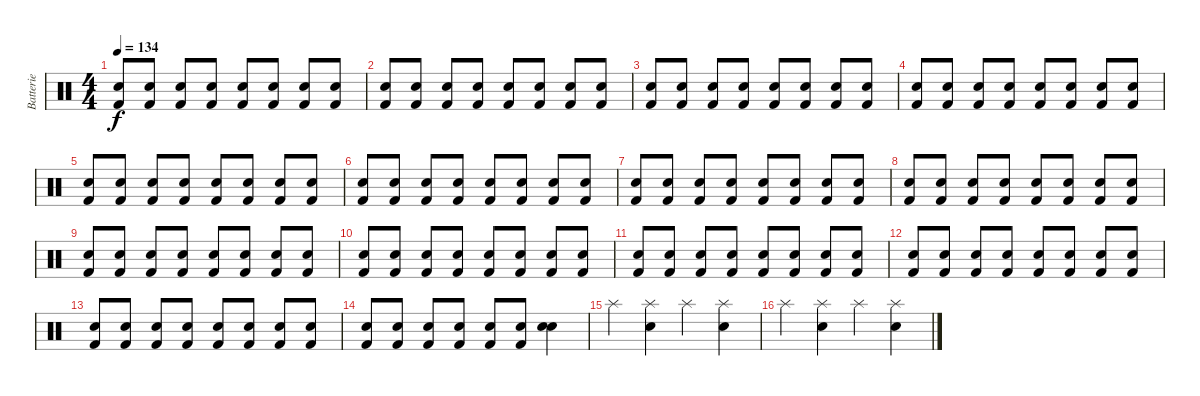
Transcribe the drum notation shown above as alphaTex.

\track ("Batterie" "Batterie") {instrument percussion}
\staff {score}
\articulation defaults
\ts (4 4)
\tempo 134
\clef neutral
\ks c
("Kick (hit) 2" "Snare (hit) 2").8{dy f} ("Kick (hit) 2" "Snare (hit) 2").8 ("Kick (hit) 2" "Snare (hit) 2").8 ("Kick (hit) 2" "Snare (hit) 2").8 ("Kick (hit) 2" "Snare (hit) 2").8 ("Kick (hit) 2" "Snare (hit) 2").8 ("Kick (hit) 2" "Snare (hit) 2").8 ("Kick (hit) 2" "Snare (hit) 2").8 |
("Kick (hit) 2" "Snare (hit) 2").8 ("Kick (hit) 2" "Snare (hit) 2").8 ("Kick (hit) 2" "Snare (hit) 2").8 ("Kick (hit) 2" "Snare (hit) 2").8 ("Kick (hit) 2" "Snare (hit) 2").8 ("Kick (hit) 2" "Snare (hit) 2").8 ("Kick (hit) 2" "Snare (hit) 2").8 ("Kick (hit) 2" "Snare (hit) 2").8 |
("Kick (hit) 2" "Snare (hit) 2").8{volume 8} ("Kick (hit) 2" "Snare (hit) 2").8 ("Kick (hit) 2" "Snare (hit) 2").8 ("Kick (hit) 2" "Snare (hit) 2").8 ("Kick (hit) 2" "Snare (hit) 2").8 ("Kick (hit) 2" "Snare (hit) 2").8 ("Kick (hit) 2" "Snare (hit) 2").8 ("Kick (hit) 2" "Snare (hit) 2").8 |
("Kick (hit) 2" "Snare (hit) 2").8 ("Kick (hit) 2" "Snare (hit) 2").8 ("Kick (hit) 2" "Snare (hit) 2").8 ("Kick (hit) 2" "Snare (hit) 2").8 ("Kick (hit) 2" "Snare (hit) 2").8 ("Kick (hit) 2" "Snare (hit) 2").8 ("Kick (hit) 2" "Snare (hit) 2").8 ("Kick (hit) 2" "Snare (hit) 2").8 |
("Kick (hit) 2" "Snare (hit) 2").8 ("Kick (hit) 2" "Snare (hit) 2").8 ("Kick (hit) 2" "Snare (hit) 2").8 ("Kick (hit) 2" "Snare (hit) 2").8 ("Kick (hit) 2" "Snare (hit) 2").8 ("Kick (hit) 2" "Snare (hit) 2").8 ("Kick (hit) 2" "Snare (hit) 2").8 ("Kick (hit) 2" "Snare (hit) 2").8 |
("Kick (hit) 2" "Snare (hit) 2").8 ("Kick (hit) 2" "Snare (hit) 2").8 ("Kick (hit) 2" "Snare (hit) 2").8 ("Kick (hit) 2" "Snare (hit) 2").8 ("Kick (hit) 2" "Snare (hit) 2").8 ("Kick (hit) 2" "Snare (hit) 2").8 ("Kick (hit) 2" "Snare (hit) 2").8 ("Kick (hit) 2" "Snare (hit) 2").8 |
("Kick (hit) 2" "Snare (hit) 2").8{volume 12} ("Kick (hit) 2" "Snare (hit) 2").8 ("Kick (hit) 2" "Snare (hit) 2").8 ("Kick (hit) 2" "Snare (hit) 2").8 ("Kick (hit) 2" "Snare (hit) 2").8 ("Kick (hit) 2" "Snare (hit) 2").8 ("Kick (hit) 2" "Snare (hit) 2").8 ("Kick (hit) 2" "Snare (hit) 2").8 |
("Kick (hit) 2" "Snare (hit) 2").8 ("Kick (hit) 2" "Snare (hit) 2").8 ("Kick (hit) 2" "Snare (hit) 2").8 ("Kick (hit) 2" "Snare (hit) 2").8 ("Kick (hit) 2" "Snare (hit) 2").8 ("Kick (hit) 2" "Snare (hit) 2").8 ("Kick (hit) 2" "Snare (hit) 2").8 ("Kick (hit) 2" "Snare (hit) 2").8 |
("Kick (hit) 2" "Snare (hit) 2").8 ("Kick (hit) 2" "Snare (hit) 2").8 ("Kick (hit) 2" "Snare (hit) 2").8 ("Kick (hit) 2" "Snare (hit) 2").8 ("Kick (hit) 2" "Snare (hit) 2").8 ("Kick (hit) 2" "Snare (hit) 2").8 ("Kick (hit) 2" "Snare (hit) 2").8 ("Kick (hit) 2" "Snare (hit) 2").8 |
("Kick (hit) 2" "Snare (hit) 2").8 ("Kick (hit) 2" "Snare (hit) 2").8 ("Kick (hit) 2" "Snare (hit) 2").8 ("Kick (hit) 2" "Snare (hit) 2").8 ("Kick (hit) 2" "Snare (hit) 2").8 ("Kick (hit) 2" "Snare (hit) 2").8 ("Kick (hit) 2" "Snare (hit) 2").8 ("Kick (hit) 2" "Snare (hit) 2").8 |
("Kick (hit) 2" "Snare (hit) 2").8{volume 16} ("Kick (hit) 2" "Snare (hit) 2").8 ("Kick (hit) 2" "Snare (hit) 2").8 ("Kick (hit) 2" "Snare (hit) 2").8 ("Kick (hit) 2" "Snare (hit) 2").8 ("Kick (hit) 2" "Snare (hit) 2").8 ("Kick (hit) 2" "Snare (hit) 2").8 ("Kick (hit) 2" "Snare (hit) 2").8 |
("Kick (hit) 2" "Snare (hit) 2").8 ("Kick (hit) 2" "Snare (hit) 2").8 ("Kick (hit) 2" "Snare (hit) 2").8 ("Kick (hit) 2" "Snare (hit) 2").8 ("Kick (hit) 2" "Snare (hit) 2").8 ("Kick (hit) 2" "Snare (hit) 2").8 ("Kick (hit) 2" "Snare (hit) 2").8 ("Kick (hit) 2" "Snare (hit) 2").8 |
("Kick (hit) 2" "Snare (hit) 2").8 ("Kick (hit) 2" "Snare (hit) 2").8 ("Kick (hit) 2" "Snare (hit) 2").8 ("Kick (hit) 2" "Snare (hit) 2").8 ("Kick (hit) 2" "Snare (hit) 2").8 ("Kick (hit) 2" "Snare (hit) 2").8 ("Kick (hit) 2" "Snare (hit) 2").8 ("Kick (hit) 2" "Snare (hit) 2").8 |
("Kick (hit) 2" "Snare (hit) 2").8 ("Kick (hit) 2" "Snare (hit) 2").8 ("Kick (hit) 2" "Snare (hit) 2").8 ("Kick (hit) 2" "Snare (hit) 2").8 ("Kick (hit) 2" "Snare (hit) 2").8 ("Kick (hit) 2" "Snare (hit) 2").8 ("Electric Snare (hit)" "Electric Snare (hit)").4 |
"Splash (hit)".4 ("Splash (hit)" "Electric Snare (hit)").4 "Splash (hit)".4 ("Splash (hit)" "Electric Snare (hit)").4 |
"Splash (hit)".4 ("Splash (hit)" "Electric Snare (hit)").4 "Splash (hit)".4 ("Splash (hit)" "Electric Snare (hit)").4
